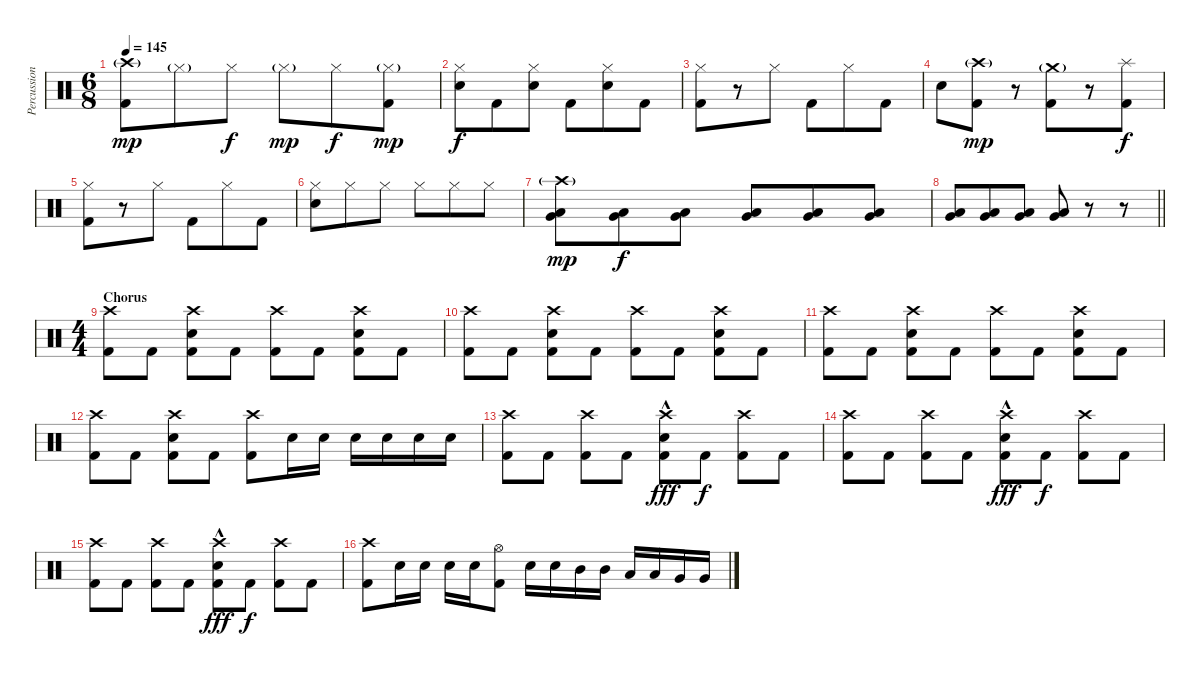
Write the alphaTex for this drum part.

\track ("Percussion" "Percussion") {instrument percussion}
\staff {score}
\articulation defaults
\ts (6 8)
\tempo 145
\clef neutral
\ks c
("Crash high (hit)"{g} "Kick (hit) 2").8{dy mp} "Hi-Hat (closed)"{g}.8 "Hi-Hat (closed)".8{dy f} "Hi-Hat (closed)"{g}.8{dy mp} "Hi-Hat (closed)".8{dy f} ("Hi-Hat (closed)"{g} "Kick (hit) 2").8{dy mp} |
("Hi-Hat (closed)" "Snare (hit) 2").8{dy f} "Kick (hit) 2".8 ("Hi-Hat (closed)" "Snare (hit) 2").8 "Kick (hit) 2".8 ("Hi-Hat (closed)" "Snare (hit) 2").8 "Kick (hit) 2".8 |
("Hi-Hat (closed)" "Kick (hit) 2").8 r.8 "Hi-Hat (closed)".8 "Kick (hit) 2".8 "Hi-Hat (closed)".8 "Kick (hit) 2".8 |
"Snare (hit) 2".8 ("Crash high (hit)"{g} "Kick (hit) 2").8{dy mp} r.8 ("Crash medium (hit)"{g} "Kick (hit) 2").8 r.8 ("Splash (hit)" "Kick (hit) 2").8{dy f} |
("Hi-Hat (closed)" "Kick (hit) 2").8 r.8 "Hi-Hat (closed)".8 "Kick (hit) 2".8 "Hi-Hat (closed)".8 "Kick (hit) 2".8 |
("Hi-Hat (closed)" "Snare (hit) 2").8 "Hi-Hat (closed)".8 "Hi-Hat (closed)".8 "Hi-Hat (closed)".8 "Hi-Hat (closed)".8 "Hi-Hat (closed)".8 |
("Crash high (hit)"{g} "Low Tom (hit)" "Very Low Tom (hit)").8{dy mp} ("Low Tom (hit)" "Very Low Tom (hit)").8{dy f} ("Low Tom (hit)" "Very Low Tom (hit)").8 ("Low Tom (hit)" "Very Low Tom (hit)").8 ("Low Tom (hit)" "Very Low Tom (hit)").8 ("Low Tom (hit)" "Very Low Tom (hit)").8 |
\barLineRight lightlight
("Low Tom (hit)" "Very Low Tom (hit)").8 ("Low Tom (hit)" "Very Low Tom (hit)").8 ("Low Tom (hit)" "Very Low Tom (hit)").8 ("Low Tom (hit)" "Very Low Tom (hit)").8 r.8 r.8 |
\ts (4 4)
\section ("" "Chorus")
("Crash high (hit)" "Kick (hit) 2").8 "Kick (hit) 2".8 ("Crash high (hit)" "Electric Snare (hit)" "Kick (hit) 2").8 "Kick (hit) 2".8 ("Crash high (hit)" "Kick (hit) 2").8 "Kick (hit) 2".8 ("Crash high (hit)" "Electric Snare (hit)" "Kick (hit) 2").8 "Kick (hit) 2".8 |
("Crash high (hit)" "Kick (hit) 2").8 "Kick (hit) 2".8 ("Crash high (hit)" "Electric Snare (hit)" "Kick (hit) 2").8 "Kick (hit) 2".8 ("Crash high (hit)" "Kick (hit) 2").8 "Kick (hit) 2".8 ("Crash high (hit)" "Electric Snare (hit)" "Kick (hit) 2").8 "Kick (hit) 2".8 |
("Crash high (hit)" "Kick (hit) 2").8 "Kick (hit) 2".8 ("Crash high (hit)" "Electric Snare (hit)" "Kick (hit) 2").8 "Kick (hit) 2".8 ("Crash high (hit)" "Kick (hit) 2").8 "Kick (hit) 2".8 ("Crash high (hit)" "Electric Snare (hit)" "Kick (hit) 2").8 "Kick (hit) 2".8 |
("Crash high (hit)" "Kick (hit) 2").8 "Kick (hit) 2".8 ("Crash high (hit)" "Electric Snare (hit)" "Kick (hit) 2").8 "Kick (hit) 2".8 ("Crash high (hit)" "Kick (hit) 2").8 "Snare (hit) 2".16 "Snare (hit) 2".16 "Snare (hit) 2".16 "Snare (hit) 2".16 "Snare (hit) 2".16 "Snare (hit) 2".16 |
("Crash high (hit)" "Kick (hit) 2").8{volume 16} "Kick (hit) 2".8 ("Crash high (hit)" "Kick (hit) 2").8 "Kick (hit) 2".8 ("Crash high (hit)" "Electric Snare (hit)"{hac} "Kick (hit) 2").8{dy fff} "Kick (hit) 2".8{dy f} ("Crash high (hit)" "Kick (hit) 2").8 "Kick (hit) 2".8 |
("Crash high (hit)" "Kick (hit) 2").8 "Kick (hit) 2".8 ("Crash high (hit)" "Kick (hit) 2").8 "Kick (hit) 2".8 ("Crash high (hit)" "Electric Snare (hit)"{hac} "Kick (hit) 2").8{dy fff} "Kick (hit) 2".8{dy f} ("Crash high (hit)" "Kick (hit) 2").8 "Kick (hit) 2".8 |
("Crash high (hit)" "Kick (hit) 2").8 "Kick (hit) 2".8 ("Crash high (hit)" "Kick (hit) 2").8 "Kick (hit) 2".8 ("Crash high (hit)" "Electric Snare (hit)"{hac} "Kick (hit) 2").8{dy fff} "Kick (hit) 2".8{dy f} ("Crash high (hit)" "Kick (hit) 2").8 "Kick (hit) 2".8 |
("Crash high (hit)" "Kick (hit) 2").8 "Snare (hit) 2".16 "Snare (hit) 2".16 "Snare (hit) 2".16 "Snare (hit) 2".16 ("Hi-Hat (open)" "Kick (hit) 2").8 "Snare (hit) 2".16 "Snare (hit) 2".16 "Mid Tom (hit)".16 "Mid Tom (hit)".16 "Low Tom (hit)".16 "Low Tom (hit)".16 "Very Low Tom (hit)".16 "Very Low Tom (hit)".16
